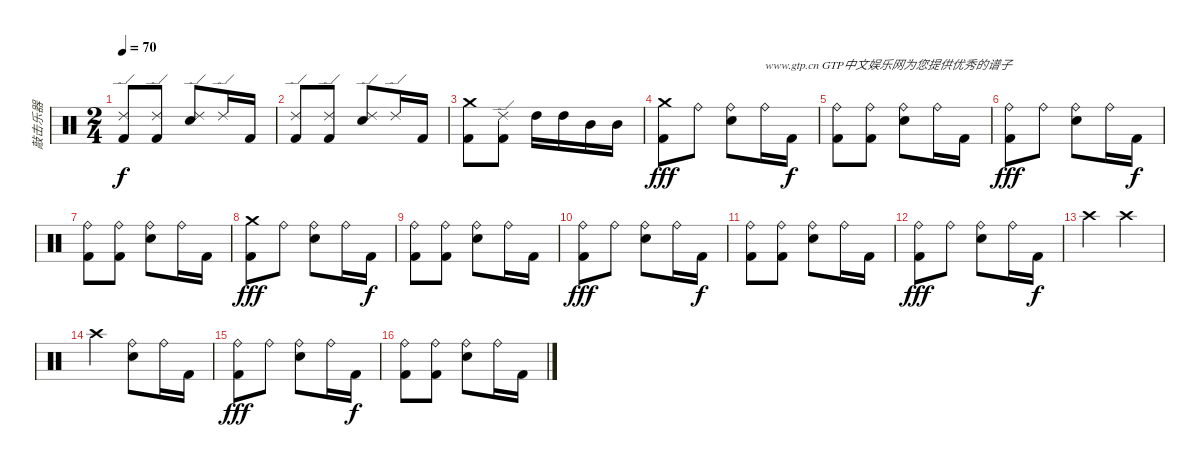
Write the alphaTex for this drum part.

\track ("敲击乐器" "敲击乐器") {instrument percussion}
\staff {score}
\articulation defaults
\ts (2 4)
\tempo 70
\clef neutral
\ks c
("Ride (edge) 2" "Kick (hit) 2").8{dy f} ("Ride (edge) 2" "Kick (hit) 2").8 ("Ride (edge) 2" "Snare (hit) 2").8 "Ride (edge) 2".16 "Kick (hit) 2".16 |
("Ride (edge) 2" "Kick (hit) 2").8 ("Ride (edge) 2" "Kick (hit) 2").8 ("Ride (edge) 2" "Snare (hit) 2").8 "Ride (edge) 2".16 "Kick (hit) 2".16 |
("Crash medium (hit)" "Kick (hit) 2").8 ("Ride (edge) 2" "Kick (hit) 2").8 "High Tom (hit)".16 "High Tom (hit)".16 "Mid Tom (hit)".16 "Mid Tom (hit)".16 |
("Crash medium (hit)" "Kick (hit) 2").8{dy fff} "Ride (bell)".8 ("Ride (bell)" "Snare (hit) 2").8 "Ride (bell)".16{txt "www.gtp.cn GTP中文娱乐网为您提供优秀的谱子"} "Kick (hit) 2".16{dy f} |
("Ride (bell)" "Kick (hit) 2").8 ("Ride (bell)" "Kick (hit) 2").8 ("Ride (bell)" "Snare (hit) 2").8 "Ride (bell)".16 "Kick (hit) 2".16 |
("Ride (bell)" "Kick (hit) 2").8{dy fff} "Ride (bell)".8 ("Ride (bell)" "Snare (hit) 2").8 "Ride (bell)".16 "Kick (hit) 2".16{dy f} |
("Ride (bell)" "Kick (hit) 2").8 ("Ride (bell)" "Kick (hit) 2").8 ("Ride (bell)" "Snare (hit) 2").8 "Ride (bell)".16 "Kick (hit) 2".16 |
("Crash medium (hit)" "Kick (hit) 2").8{dy fff} "Ride (bell)".8 ("Ride (bell)" "Snare (hit) 2").8 "Ride (bell)".16 "Kick (hit) 2".16{dy f} |
("Ride (bell)" "Kick (hit) 2").8 ("Ride (bell)" "Kick (hit) 2").8 ("Ride (bell)" "Snare (hit) 2").8 "Ride (bell)".16 "Kick (hit) 2".16 |
("Ride (bell)" "Kick (hit) 2").8{dy fff} "Ride (bell)".8 ("Ride (bell)" "Snare (hit) 2").8 "Ride (bell)".16 "Kick (hit) 2".16{dy f} |
("Ride (bell)" "Kick (hit) 2").8 ("Ride (bell)" "Kick (hit) 2").8 ("Ride (bell)" "Snare (hit) 2").8 "Ride (bell)".16 "Kick (hit) 2".16 |
("Ride (bell)" "Kick (hit) 2").8{dy fff} "Ride (bell)".8 ("Ride (bell)" "Snare (hit) 2").8 "Ride (bell)".16 "Kick (hit) 2".16{dy f} |
"Crash high (hit)".4 "Crash high (hit)".4 |
"Crash high (hit)".4 ("Ride (bell)" "Snare (hit) 2").8 "Ride (bell)".16 "Kick (hit) 2".16 |
("Ride (bell)" "Kick (hit) 2").8{dy fff} "Ride (bell)".8 ("Ride (bell)" "Snare (hit) 2").8 "Ride (bell)".16 "Kick (hit) 2".16{dy f} |
("Ride (bell)" "Kick (hit) 2").8 ("Ride (bell)" "Kick (hit) 2").8 ("Ride (bell)" "Snare (hit) 2").8 "Ride (bell)".16 "Kick (hit) 2".16
